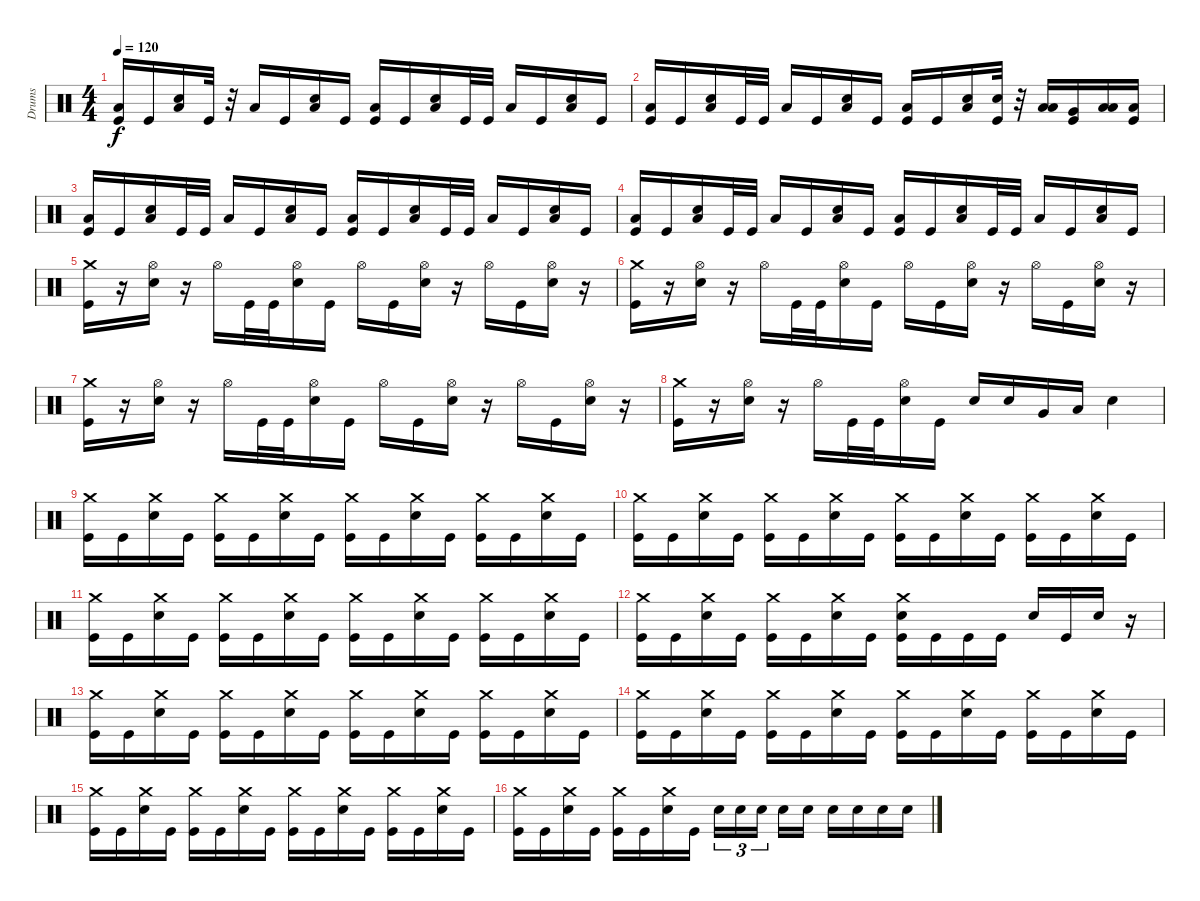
\track ("Drums" "Drums") {instrument percussion}
\staff {score}
\articulation defaults
\ts (4 4)
\tempo 120
\clef neutral
\ks c
("Low Floor Tom (hit)" "Kick (hit)").16{dy f} "Kick (hit)".16 ("Electric Snare (hit)" "Low Floor Tom (hit)").16 "Kick (hit)".32 r.32 "Low Floor Tom (hit)".16 "Kick (hit)".16 ("Electric Snare (hit)" "Low Floor Tom (hit)").16 "Kick (hit)".16 ("Low Floor Tom (hit)" "Kick (hit)").16 "Kick (hit)".16 ("Electric Snare (hit)" "Low Floor Tom (hit)").16 "Kick (hit)".32 "Kick (hit)".32 "Low Floor Tom (hit)".16 "Kick (hit)".16 ("Electric Snare (hit)" "Low Floor Tom (hit)").16 "Kick (hit)".16 |
("Low Floor Tom (hit)" "Kick (hit)").16 "Kick (hit)".16 ("Electric Snare (hit)" "Low Floor Tom (hit)").16 "Kick (hit)".32 "Kick (hit)".32 "Low Floor Tom (hit)".16 "Kick (hit)".16 ("Electric Snare (hit)" "Low Floor Tom (hit)").16 "Kick (hit)".16 ("Low Floor Tom (hit)" "Kick (hit)").16 "Kick (hit)".16 ("Electric Snare (hit)" "Low Floor Tom (hit)").16 ("Electric Snare (hit)" "Kick (hit)").32 r.32 ("Low Tom (hit)" "Low Floor Tom (hit)").16 ("Very Low Tom (hit)" "Kick (hit)").16 ("Low Floor Tom (hit)" "Low Floor Tom (hit)").16 ("Low Floor Tom (hit)" "Kick (hit)").16 |
("Low Floor Tom (hit)" "Kick (hit)").16 "Kick (hit)".16 ("Electric Snare (hit)" "Low Floor Tom (hit)").16 "Kick (hit)".32 "Kick (hit)".32 "Low Floor Tom (hit)".16 "Kick (hit)".16 ("Electric Snare (hit)" "Low Floor Tom (hit)").16 "Kick (hit)".16 ("Low Floor Tom (hit)" "Kick (hit)").16 "Kick (hit)".16 ("Electric Snare (hit)" "Low Floor Tom (hit)").16 "Kick (hit)".32 "Kick (hit)".32 "Low Floor Tom (hit)".16 "Kick (hit)".16 ("Electric Snare (hit)" "Low Floor Tom (hit)").16 "Kick (hit)".16 |
("Low Floor Tom (hit)" "Kick (hit)").16 "Kick (hit)".16 ("Electric Snare (hit)" "Low Floor Tom (hit)").16 "Kick (hit)".32 "Kick (hit)".32 "Low Floor Tom (hit)".16 "Kick (hit)".16 ("Electric Snare (hit)" "Low Floor Tom (hit)").16 "Kick (hit)".16 ("Low Floor Tom (hit)" "Kick (hit)").16 "Kick (hit)".16 ("Electric Snare (hit)" "Low Floor Tom (hit)").16 "Kick (hit)".32 "Kick (hit)".32 "Low Floor Tom (hit)".16 "Kick (hit)".16 ("Electric Snare (hit)" "Low Floor Tom (hit)").16 "Kick (hit)".16 |
("Crash medium (hit)" "Kick (hit)").16 r.16 ("Hi-Hat (open)" "Electric Snare (hit)").16 r.16 "Hi-Hat (open)".16 "Kick (hit)".32 "Kick (hit)".32 ("Hi-Hat (open)" "Electric Snare (hit)").16 "Kick (hit)".16 "Hi-Hat (open)".16 "Kick (hit)".16 ("Hi-Hat (open)" "Electric Snare (hit)").16 r.16 "Hi-Hat (open)".16 "Kick (hit)".16 ("Hi-Hat (open)" "Electric Snare (hit)").16 r.16 |
("Crash medium (hit)" "Kick (hit)").16 r.16 ("Hi-Hat (open)" "Electric Snare (hit)").16 r.16 "Hi-Hat (open)".16 "Kick (hit)".32 "Kick (hit)".32 ("Hi-Hat (open)" "Electric Snare (hit)").16 "Kick (hit)".16 "Hi-Hat (open)".16 "Kick (hit)".16 ("Hi-Hat (open)" "Electric Snare (hit)").16 r.16 "Hi-Hat (open)".16 "Kick (hit)".16 ("Hi-Hat (open)" "Electric Snare (hit)").16 r.16 |
("Crash medium (hit)" "Kick (hit)").16 r.16 ("Hi-Hat (open)" "Electric Snare (hit)").16 r.16 "Hi-Hat (open)".16 "Kick (hit)".32 "Kick (hit)".32 ("Hi-Hat (open)" "Electric Snare (hit)").16 "Kick (hit)".16 "Hi-Hat (open)".16 "Kick (hit)".16 ("Hi-Hat (open)" "Electric Snare (hit)").16 r.16 "Hi-Hat (open)".16 "Kick (hit)".16 ("Hi-Hat (open)" "Electric Snare (hit)").16 r.16 |
("Crash medium (hit)" "Kick (hit)").16 r.16 ("Hi-Hat (open)" "Electric Snare (hit)").16 r.16 "Hi-Hat (open)".16 "Kick (hit)".32 "Kick (hit)".32 ("Hi-Hat (open)" "Electric Snare (hit)").16 "Kick (hit)".16 "Electric Snare (hit)".16 "Electric Snare (hit)".16 "Very Low Tom (hit)".16 "Low Floor Tom (hit)".16 "Electric Snare (hit)".4 |
("Crash medium (hit)" "Kick (hit)").16 "Kick (hit)".16 ("Crash medium (hit)" "Electric Snare (hit)").16 "Kick (hit)".16 ("Crash medium (hit)" "Kick (hit)").16 "Kick (hit)".16 ("Crash medium (hit)" "Electric Snare (hit)").16 "Kick (hit)".16 ("Crash medium (hit)" "Kick (hit)").16 "Kick (hit)".16 ("Crash medium (hit)" "Electric Snare (hit)").16 "Kick (hit)".16 ("Crash medium (hit)" "Kick (hit)").16 "Kick (hit)".16 ("Crash medium (hit)" "Electric Snare (hit)").16 "Kick (hit)".16 |
("Crash medium (hit)" "Kick (hit)").16 "Kick (hit)".16 ("Crash medium (hit)" "Electric Snare (hit)").16 "Kick (hit)".16 ("Crash medium (hit)" "Kick (hit)").16 "Kick (hit)".16 ("Crash medium (hit)" "Electric Snare (hit)").16 "Kick (hit)".16 ("Crash medium (hit)" "Kick (hit)").16 "Kick (hit)".16 ("Crash medium (hit)" "Electric Snare (hit)").16 "Kick (hit)".16 ("Crash medium (hit)" "Kick (hit)").16 "Kick (hit)".16 ("Crash medium (hit)" "Electric Snare (hit)").16 "Kick (hit)".16 |
("Crash medium (hit)" "Kick (hit)").16 "Kick (hit)".16 ("Crash medium (hit)" "Electric Snare (hit)").16 "Kick (hit)".16 ("Crash medium (hit)" "Kick (hit)").16 "Kick (hit)".16 ("Crash medium (hit)" "Electric Snare (hit)").16 "Kick (hit)".16 ("Crash medium (hit)" "Kick (hit)").16 "Kick (hit)".16 ("Crash medium (hit)" "Electric Snare (hit)").16 "Kick (hit)".16 ("Crash medium (hit)" "Kick (hit)").16 "Kick (hit)".16 ("Crash medium (hit)" "Electric Snare (hit)").16 "Kick (hit)".16 |
("Crash medium (hit)" "Kick (hit)").16 "Kick (hit)".16 ("Crash medium (hit)" "Electric Snare (hit)").16 "Kick (hit)".16 ("Crash medium (hit)" "Kick (hit)").16 "Kick (hit)".16 ("Crash medium (hit)" "Electric Snare (hit)").16 "Kick (hit)".16 ("Crash medium (hit)" "Electric Snare (hit)" "Kick (hit)").16 "Kick (hit)".16 "Kick (hit)".16 "Kick (hit)".16 "Electric Snare (hit)".16 "Kick (hit)".16 "Electric Snare (hit)".16 r.16 |
("Crash medium (hit)" "Kick (hit)").16 "Kick (hit)".16 ("Crash medium (hit)" "Electric Snare (hit)").16 "Kick (hit)".16 ("Crash medium (hit)" "Kick (hit)").16 "Kick (hit)".16 ("Crash medium (hit)" "Electric Snare (hit)").16 "Kick (hit)".16 ("Crash medium (hit)" "Kick (hit)").16 "Kick (hit)".16 ("Crash medium (hit)" "Electric Snare (hit)").16 "Kick (hit)".16 ("Crash medium (hit)" "Kick (hit)").16 "Kick (hit)".16 ("Crash medium (hit)" "Electric Snare (hit)").16 "Kick (hit)".16 |
("Crash medium (hit)" "Kick (hit)").16 "Kick (hit)".16 ("Crash medium (hit)" "Electric Snare (hit)").16 "Kick (hit)".16 ("Crash medium (hit)" "Kick (hit)").16 "Kick (hit)".16 ("Crash medium (hit)" "Electric Snare (hit)").16 "Kick (hit)".16 ("Crash medium (hit)" "Kick (hit)").16 "Kick (hit)".16 ("Crash medium (hit)" "Electric Snare (hit)").16 "Kick (hit)".16 ("Crash medium (hit)" "Kick (hit)").16 "Kick (hit)".16 ("Crash medium (hit)" "Electric Snare (hit)").16 "Kick (hit)".16 |
("Crash medium (hit)" "Kick (hit)").16 "Kick (hit)".16 ("Crash medium (hit)" "Electric Snare (hit)").16 "Kick (hit)".16 ("Crash medium (hit)" "Kick (hit)").16 "Kick (hit)".16 ("Crash medium (hit)" "Electric Snare (hit)").16 "Kick (hit)".16 ("Crash medium (hit)" "Kick (hit)").16 "Kick (hit)".16 ("Crash medium (hit)" "Electric Snare (hit)").16 "Kick (hit)".16 ("Crash medium (hit)" "Kick (hit)").16 "Kick (hit)".16 ("Crash medium (hit)" "Electric Snare (hit)").16 "Kick (hit)".16 |
("Crash medium (hit)" "Kick (hit)").16 "Kick (hit)".16 ("Crash medium (hit)" "Electric Snare (hit)").16 "Kick (hit)".16 ("Crash medium (hit)" "Kick (hit)").16 "Kick (hit)".16 ("Crash medium (hit)" "Electric Snare (hit)").16 "Kick (hit)".16 "Electric Snare (hit)".16{tu (3 2)} "Electric Snare (hit)".16{tu (3 2)} "Electric Snare (hit)".16{tu (3 2)} "Electric Snare (hit)".16 "Electric Snare (hit)".16 "Electric Snare (hit)".16 "Electric Snare (hit)".16 "Electric Snare (hit)".16 "Electric Snare (hit)".16
